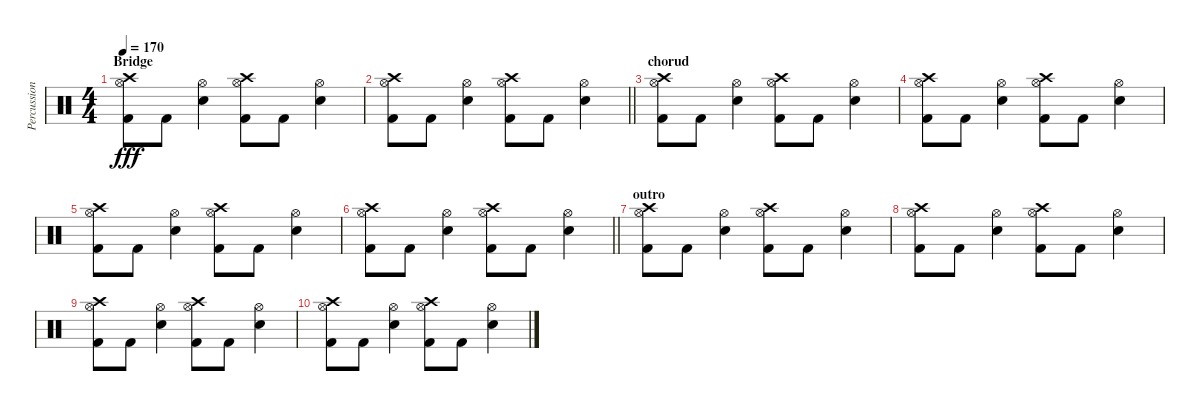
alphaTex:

\track ("Percussion" "Percussion") {instrument percussion}
\staff {score}
\articulation defaults
\ts (4 4)
\section ("" "Bridge")
\tempo 170
\clef neutral
\ks c
("Crash high (hit)" "Hi-Hat (open)" "Kick (hit) 2").8{dy fff} "Kick (hit) 2".8 ("Hi-Hat (open)" "Electric Snare (hit)").4 ("Crash high (hit)" "Hi-Hat (open)" "Kick (hit) 2").8 "Kick (hit) 2".8 ("Hi-Hat (open)" "Electric Snare (hit)").4 |
\barLineRight lightlight
("Crash high (hit)" "Hi-Hat (open)" "Kick (hit) 2").8 "Kick (hit) 2".8 ("Hi-Hat (open)" "Electric Snare (hit)").4 ("Crash high (hit)" "Hi-Hat (open)" "Kick (hit) 2").8 "Kick (hit) 2".8 ("Hi-Hat (open)" "Electric Snare (hit)").4 |
\section ("" "chorud")
("Crash high (hit)" "Hi-Hat (open)" "Kick (hit) 2").8 "Kick (hit) 2".8 ("Hi-Hat (open)" "Electric Snare (hit)").4 ("Crash high (hit)" "Hi-Hat (open)" "Kick (hit) 2").8 "Kick (hit) 2".8 ("Hi-Hat (open)" "Electric Snare (hit)").4 |
("Crash high (hit)" "Hi-Hat (open)" "Kick (hit) 2").8 "Kick (hit) 2".8 ("Hi-Hat (open)" "Electric Snare (hit)").4 ("Crash high (hit)" "Hi-Hat (open)" "Kick (hit) 2").8 "Kick (hit) 2".8 ("Hi-Hat (open)" "Electric Snare (hit)").4 |
("Crash high (hit)" "Hi-Hat (open)" "Kick (hit) 2").8 "Kick (hit) 2".8 ("Hi-Hat (open)" "Electric Snare (hit)").4 ("Crash high (hit)" "Hi-Hat (open)" "Kick (hit) 2").8 "Kick (hit) 2".8 ("Hi-Hat (open)" "Electric Snare (hit)").4 |
\barLineRight lightlight
("Crash high (hit)" "Hi-Hat (open)" "Kick (hit) 2").8 "Kick (hit) 2".8 ("Hi-Hat (open)" "Electric Snare (hit)").4 ("Crash high (hit)" "Hi-Hat (open)" "Kick (hit) 2").8 "Kick (hit) 2".8 ("Hi-Hat (open)" "Electric Snare (hit)").4 |
\section ("" "outro")
("Crash high (hit)" "Hi-Hat (open)" "Kick (hit) 2").8 "Kick (hit) 2".8 ("Hi-Hat (open)" "Electric Snare (hit)").4 ("Crash high (hit)" "Hi-Hat (open)" "Kick (hit) 2").8 "Kick (hit) 2".8 ("Hi-Hat (open)" "Electric Snare (hit)").4 |
("Crash high (hit)" "Hi-Hat (open)" "Kick (hit) 2").8 "Kick (hit) 2".8 ("Hi-Hat (open)" "Electric Snare (hit)").4 ("Crash high (hit)" "Hi-Hat (open)" "Kick (hit) 2").8 "Kick (hit) 2".8 ("Hi-Hat (open)" "Electric Snare (hit)").4 |
("Crash high (hit)" "Hi-Hat (open)" "Kick (hit) 2").8 "Kick (hit) 2".8 ("Hi-Hat (open)" "Electric Snare (hit)").4 ("Crash high (hit)" "Hi-Hat (open)" "Kick (hit) 2").8 "Kick (hit) 2".8 ("Hi-Hat (open)" "Electric Snare (hit)").4 |
("Crash high (hit)" "Hi-Hat (open)" "Kick (hit) 2").8 "Kick (hit) 2".8 ("Hi-Hat (open)" "Electric Snare (hit)").4 ("Crash high (hit)" "Hi-Hat (open)" "Kick (hit) 2").8 "Kick (hit) 2".8 ("Hi-Hat (open)" "Electric Snare (hit)").4
